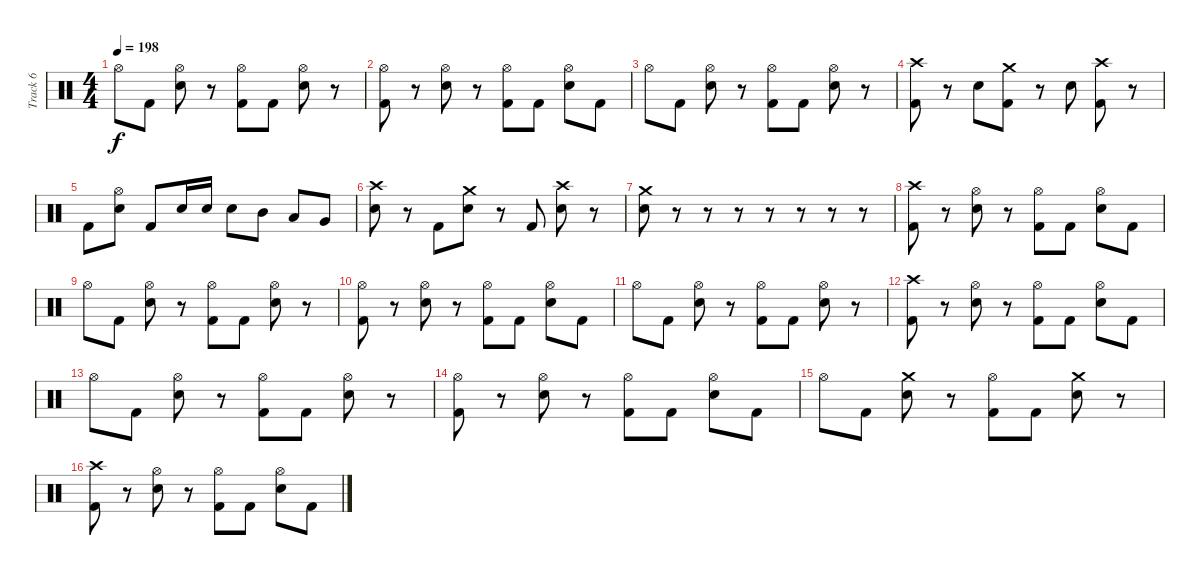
\track ("Track 6" "Track 6") {instrument percussion}
\staff {score}
\articulation defaults
\ts (4 4)
\tempo 198
\clef neutral
\ks c "Hi-Hat (open)".8{dy f} "Kick (hit) 2".8
("Hi-Hat (open)" "Electric Snare (hit)").8 r.8 ("Hi-Hat (open)" "Kick (hit) 2").8 "Kick (hit) 2".8 ("Hi-Hat (open)" "Electric Snare (hit)").8 r.8 |
("Hi-Hat (open)" "Kick (hit) 2").8 r.8 ("Hi-Hat (open)" "Electric Snare (hit)").8 r.8 ("Hi-Hat (open)" "Kick (hit) 2").8 "Kick (hit) 2".8 ("Hi-Hat (open)" "Electric Snare (hit)").8 "Kick (hit) 2".8 |
"Hi-Hat (open)".8 "Kick (hit) 2".8 ("Hi-Hat (open)" "Electric Snare (hit)").8 r.8 ("Hi-Hat (open)" "Kick (hit) 2").8 "Kick (hit) 2".8 ("Hi-Hat (open)" "Electric Snare (hit)").8 r.8 |
("Crash high (hit)" "Kick (hit) 2").8 r.8 "Electric Snare (hit)".8 ("Crash medium (hit)" "Kick (hit) 2").8 r.8 "Electric Snare (hit)".8 ("Crash high (hit)" "Kick (hit) 2").8 r.8 |
"Kick (hit) 2".8 ("Hi-Hat (open)" "Electric Snare (hit)").8 "Kick (hit) 2".8 "Electric Snare (hit)".16 "Electric Snare (hit)".16 "Electric Snare (hit)".8 "Mid Tom (hit)".8 "Low Tom (hit)".8 "Very Low Tom (hit)".8 |
("Crash high (hit)" "Electric Snare (hit)").8 r.8 "Kick (hit) 2".8 ("Crash medium (hit)" "Electric Snare (hit)").8 r.8 "Kick (hit) 2".8 ("Crash high (hit)" "Electric Snare (hit)").8 r.8 |
("Crash medium (hit)" "Electric Snare (hit)").8 r.8 r.8 r.8 r.8 r.8 r.8 r.8 |
("Crash high (hit)" "Kick (hit) 2").8 r.8 ("Hi-Hat (open)" "Electric Snare (hit)").8 r.8 ("Hi-Hat (open)" "Kick (hit) 2").8 "Kick (hit) 2".8 ("Hi-Hat (open)" "Electric Snare (hit)").8 "Kick (hit) 2".8 |
"Hi-Hat (open)".8 "Kick (hit) 2".8 ("Hi-Hat (open)" "Electric Snare (hit)").8 r.8 ("Hi-Hat (open)" "Kick (hit) 2").8 "Kick (hit) 2".8 ("Hi-Hat (open)" "Electric Snare (hit)").8 r.8 |
("Hi-Hat (open)" "Kick (hit) 2").8 r.8 ("Hi-Hat (open)" "Electric Snare (hit)").8 r.8 ("Hi-Hat (open)" "Kick (hit) 2").8 "Kick (hit) 2".8 ("Hi-Hat (open)" "Electric Snare (hit)").8 "Kick (hit) 2".8 |
"Hi-Hat (open)".8 "Kick (hit) 2".8 ("Hi-Hat (open)" "Electric Snare (hit)").8 r.8 ("Hi-Hat (open)" "Kick (hit) 2").8 "Kick (hit) 2".8 ("Hi-Hat (open)" "Electric Snare (hit)").8 r.8 |
("Crash high (hit)" "Kick (hit) 2").8 r.8 ("Hi-Hat (open)" "Electric Snare (hit)").8 r.8 ("Hi-Hat (open)" "Kick (hit) 2").8 "Kick (hit) 2".8 ("Hi-Hat (open)" "Electric Snare (hit)").8 "Kick (hit) 2".8 |
"Hi-Hat (open)".8 "Kick (hit) 2".8 ("Hi-Hat (open)" "Electric Snare (hit)").8 r.8 ("Hi-Hat (open)" "Kick (hit) 2").8 "Kick (hit) 2".8 ("Hi-Hat (open)" "Electric Snare (hit)").8 r.8 |
("Hi-Hat (open)" "Kick (hit) 2").8 r.8 ("Hi-Hat (open)" "Electric Snare (hit)").8 r.8 ("Hi-Hat (open)" "Kick (hit) 2").8 "Kick (hit) 2".8 ("Hi-Hat (open)" "Electric Snare (hit)").8 "Kick (hit) 2".8 |
"Hi-Hat (open)".8 "Kick (hit) 2".8 ("Crash medium (hit)" "Electric Snare (hit)").8 r.8 ("Hi-Hat (open)" "Kick (hit) 2").8 "Kick (hit) 2".8 ("Crash medium (hit)" "Electric Snare (hit)").8 r.8 |
("Crash high (hit)" "Kick (hit) 2").8 r.8 ("Hi-Hat (open)" "Electric Snare (hit)").8 r.8 ("Hi-Hat (open)" "Kick (hit) 2").8 "Kick (hit) 2".8 ("Hi-Hat (open)" "Electric Snare (hit)").8 "Kick (hit) 2".8
